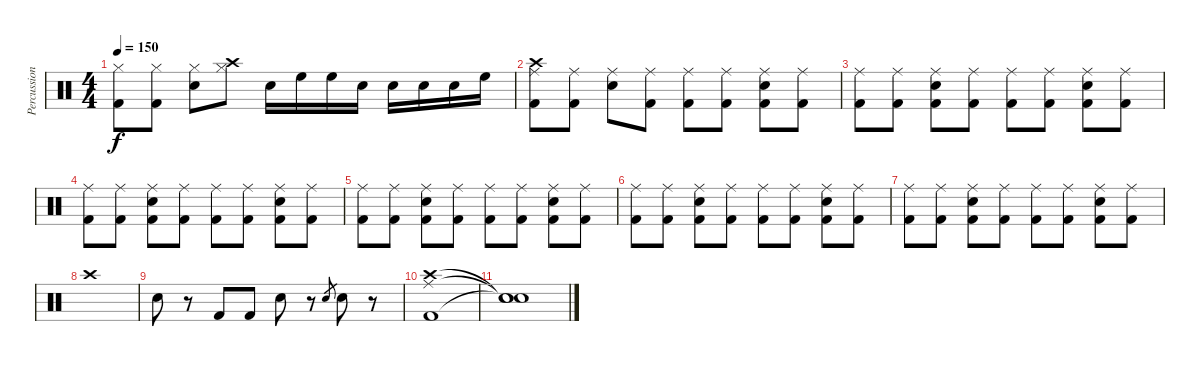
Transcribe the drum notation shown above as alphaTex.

\track ("Percussion" "Percussion") {instrument percussion}
\staff {score}
\articulation defaults
\ts (4 4)
\tempo 150
\clef neutral
\ks c
("Hi-Hat (closed)" "Kick (hit) 2").8{dy f} ("Hi-Hat (closed)" "Kick (hit) 2").8 ("Hi-Hat (closed)" "Snare (hit) 2").8 ("Crash high (hit)" "Hi-Hat (closed)").8 "Snare (hit) 2".16 "High Floor Tom (hit)".16 "High Floor Tom (hit)".16 "Snare (hit) 2".16 "Snare (hit) 2".16 "Snare (hit) 2".16 "Snare (hit) 2".16 "High Floor Tom (hit)".16 |
("Crash high (hit)" "Ride (middle)" "Kick (hit) 2").8 ("Ride (middle)" "Kick (hit) 2").8 ("Ride (middle)" "Snare (hit) 2").8 ("Ride (middle)" "Kick (hit) 2").8 ("Ride (middle)" "Kick (hit) 2").8 ("Ride (middle)" "Kick (hit) 2").8 ("Ride (middle)" "Snare (hit) 2" "Kick (hit) 2").8 ("Ride (middle)" "Kick (hit) 2").8 |
("Ride (middle)" "Kick (hit) 2").8 ("Ride (middle)" "Kick (hit) 2").8 ("Ride (middle)" "Snare (hit) 2" "Kick (hit) 2").8 ("Ride (middle)" "Kick (hit) 2").8 ("Ride (middle)" "Kick (hit) 2").8 ("Ride (middle)" "Kick (hit) 2").8 ("Ride (middle)" "Snare (hit) 2" "Kick (hit) 2").8 ("Ride (middle)" "Kick (hit) 2").8 |
("Ride (middle)" "Kick (hit) 2").8 ("Ride (middle)" "Kick (hit) 2").8 ("Ride (middle)" "Snare (hit) 2" "Kick (hit) 2").8 ("Ride (middle)" "Kick (hit) 2").8 ("Ride (middle)" "Kick (hit) 2").8 ("Ride (middle)" "Kick (hit) 2").8 ("Ride (middle)" "Snare (hit) 2" "Kick (hit) 2").8 ("Ride (middle)" "Kick (hit) 2").8 |
("Ride (middle)" "Kick (hit) 2").8 ("Ride (middle)" "Kick (hit) 2").8 ("Ride (middle)" "Snare (hit) 2" "Kick (hit) 2").8 ("Ride (middle)" "Kick (hit) 2").8 ("Ride (middle)" "Kick (hit) 2").8 ("Ride (middle)" "Kick (hit) 2").8 ("Ride (middle)" "Snare (hit) 2" "Kick (hit) 2").8 ("Ride (middle)" "Kick (hit) 2").8 |
("Ride (middle)" "Kick (hit) 2").8 ("Ride (middle)" "Kick (hit) 2").8 ("Ride (middle)" "Snare (hit) 2" "Kick (hit) 2").8 ("Ride (middle)" "Kick (hit) 2").8 ("Ride (middle)" "Kick (hit) 2").8 ("Ride (middle)" "Kick (hit) 2").8 ("Ride (middle)" "Snare (hit) 2" "Kick (hit) 2").8 ("Ride (middle)" "Kick (hit) 2").8 |
("Ride (middle)" "Kick (hit) 2").8 ("Ride (middle)" "Kick (hit) 2").8 ("Ride (middle)" "Snare (hit) 2" "Kick (hit) 2").8 ("Ride (middle)" "Kick (hit) 2").8 ("Ride (middle)" "Kick (hit) 2").8 ("Ride (middle)" "Kick (hit) 2").8 ("Ride (middle)" "Snare (hit) 2" "Kick (hit) 2").8 ("Ride (middle)" "Kick (hit) 2").8 |
"Crash high (hit)".1 |
"Snare (hit) 2".8 r.8 "Kick (hit) 2".8 "Kick (hit) 2".8 "Snare (hit) 2".8 r.8 "Snare (hit) 2".8{gr} "Snare (hit) 2".8 r.8 |
("Crash high (hit)" "Kick (hit) 2" "Ride (middle)").1 |
("Snare (hit)"{t} "Snare (hit)"{t} "Snare (hit)"{t}).1
